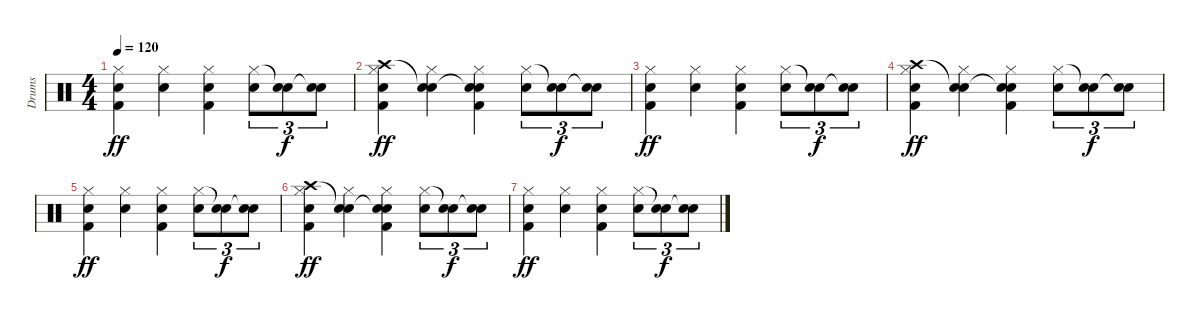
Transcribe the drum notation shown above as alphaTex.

\track ("Drums" "Drums") {instrument percussion}
\staff {score}
\articulation defaults
\ts (4 4)
\tempo 120
\clef neutral
\ks c
("Hi-Hat (closed)" "Snare (hit) 2" "Kick (hit) 2").4{dy ff} ("Hi-Hat (closed)" "Snare (hit) 2").4 ("Hi-Hat (closed)" "Snare (hit) 2" "Kick (hit) 2").4 ("Hi-Hat (closed)" "Snare (hit) 2").8{tu (3 2)} ("Snare (hit)"{t} "Snare (hit) 2").8{tu (3 2) dy f} ("Snare (hit)"{t} "Snare (hit) 2").8{tu (3 2)} |
("Crash high (hit)" "Hi-Hat (closed)" "Snare (hit) 2" "Kick (hit) 2").4{dy ff} ("Snare (hit)"{t} "Hi-Hat (closed)" "Snare (hit) 2").4 ("Snare (hit)"{t} "Hi-Hat (closed)" "Snare (hit) 2" "Kick (hit) 2").4 ("Hi-Hat (closed)" "Snare (hit) 2").8{tu (3 2)} ("Snare (hit)"{t} "Snare (hit) 2").8{tu (3 2) dy f} ("Snare (hit)"{t} "Snare (hit) 2").8{tu (3 2)} |
("Hi-Hat (closed)" "Snare (hit) 2" "Kick (hit) 2").4{dy ff} ("Hi-Hat (closed)" "Snare (hit) 2").4 ("Hi-Hat (closed)" "Snare (hit) 2" "Kick (hit) 2").4 ("Hi-Hat (closed)" "Snare (hit) 2").8{tu (3 2)} ("Snare (hit)"{t} "Snare (hit) 2").8{tu (3 2) dy f} ("Snare (hit)"{t} "Snare (hit) 2").8{tu (3 2)} |
("Crash high (hit)" "Hi-Hat (closed)" "Snare (hit) 2" "Kick (hit) 2").4{dy ff} ("Snare (hit)"{t} "Hi-Hat (closed)" "Snare (hit) 2").4 ("Snare (hit)"{t} "Hi-Hat (closed)" "Snare (hit) 2" "Kick (hit) 2").4 ("Hi-Hat (closed)" "Snare (hit) 2").8{tu (3 2)} ("Snare (hit)"{t} "Snare (hit) 2").8{tu (3 2) dy f} ("Snare (hit)"{t} "Snare (hit) 2").8{tu (3 2)} |
("Hi-Hat (closed)" "Snare (hit) 2" "Kick (hit) 2").4{dy ff} ("Hi-Hat (closed)" "Snare (hit) 2").4 ("Hi-Hat (closed)" "Snare (hit) 2" "Kick (hit) 2").4 ("Hi-Hat (closed)" "Snare (hit) 2").8{tu (3 2)} ("Snare (hit)"{t} "Snare (hit) 2").8{tu (3 2) dy f} ("Snare (hit)"{t} "Snare (hit) 2").8{tu (3 2)} |
("Crash high (hit)" "Hi-Hat (closed)" "Snare (hit) 2" "Kick (hit) 2").4{dy ff} ("Snare (hit)"{t} "Hi-Hat (closed)" "Snare (hit) 2").4 ("Snare (hit)"{t} "Hi-Hat (closed)" "Snare (hit) 2" "Kick (hit) 2").4 ("Hi-Hat (closed)" "Snare (hit) 2").8{tu (3 2)} ("Snare (hit)"{t} "Snare (hit) 2").8{tu (3 2) dy f} ("Snare (hit)"{t} "Snare (hit) 2").8{tu (3 2)} |
("Hi-Hat (closed)" "Snare (hit) 2" "Kick (hit) 2").4{dy ff} ("Hi-Hat (closed)" "Snare (hit) 2").4 ("Hi-Hat (closed)" "Snare (hit) 2" "Kick (hit) 2").4 ("Hi-Hat (closed)" "Snare (hit) 2").8{tu (3 2)} ("Snare (hit)"{t} "Snare (hit) 2").8{tu (3 2) dy f} ("Snare (hit)"{t} "Snare (hit) 2").8{tu (3 2)}
